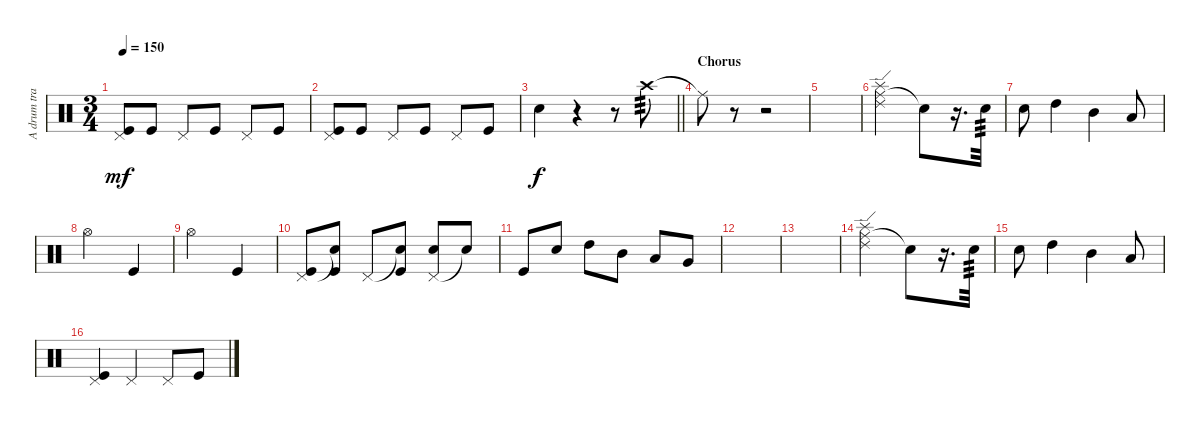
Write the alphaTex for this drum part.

\track ("A drum track I added for fun" "A drum tra") {instrument percussion}
\staff {score}
\articulation defaults
\ts (3 4)
\tempo 150
\clef neutral
\ks c
("Pedal Hi-Hat (hit)" "Kick (hit)").8{dy mf} "Kick (hit)".8 "Pedal Hi-Hat (hit)".8 "Kick (hit)".8 "Pedal Hi-Hat (hit)".8 "Kick (hit)".8 |
("Pedal Hi-Hat (hit)" "Kick (hit)").8 "Kick (hit)".8 "Pedal Hi-Hat (hit)".8 "Kick (hit)".8 "Pedal Hi-Hat (hit)".8 "Kick (hit)".8 |
\barLineRight lightlight "Electric Snare (hit)".4{dy f}
r.4 r.8{volume 0} "Crash high (hit)".8{tp 3 volume 16} |
\section ("" "Chorus")
"Ride (middle)"{t}.8 r.8 r.2 |
|
("Ride (middle)" "Ride (edge) 2" "Splash (hit)").2 "Snare (hit)"{t}.8 r.16{d} "Electric Snare (hit)".32{tp 3} |
"Electric Snare (hit)".8 "High Tom (hit)".4 "Mid Tom (hit)".4 "Low Tom (hit)".8 |
"Hi-Hat (open)".2 "Kick (hit)".4 |
"Hi-Hat (open)".2 "Kick (hit)".4 |
("Pedal Hi-Hat (hit)" "Kick (hit)").8 ("Snare (hit)"{t} "Kick (hit)").8 "Pedal Hi-Hat (hit)".8 ("Snare (hit)"{t} "Kick (hit)").8 ("Pedal Hi-Hat (hit)" "Electric Snare (hit)").8 "Snare (hit)"{t}.8 |
"Kick (hit)".8 "Electric Snare (hit)".8 "High Tom (hit)".8 "Mid Tom (hit)".8 "Low Tom (hit)".8 "Very Low Tom (hit)".8 |
|
|
("Ride (middle)" "Ride (edge) 2" "Splash (hit)").2 "Snare (hit)"{t}.8 r.16{d} "Electric Snare (hit)".32{tp 3} |
"Electric Snare (hit)".8 "High Tom (hit)".4 "Mid Tom (hit)".4 "Low Tom (hit)".8 |
("Pedal Hi-Hat (hit)" "Kick (hit)").4 "Pedal Hi-Hat (hit)".4 "Pedal Hi-Hat (hit)".8 "Kick (hit)".8
